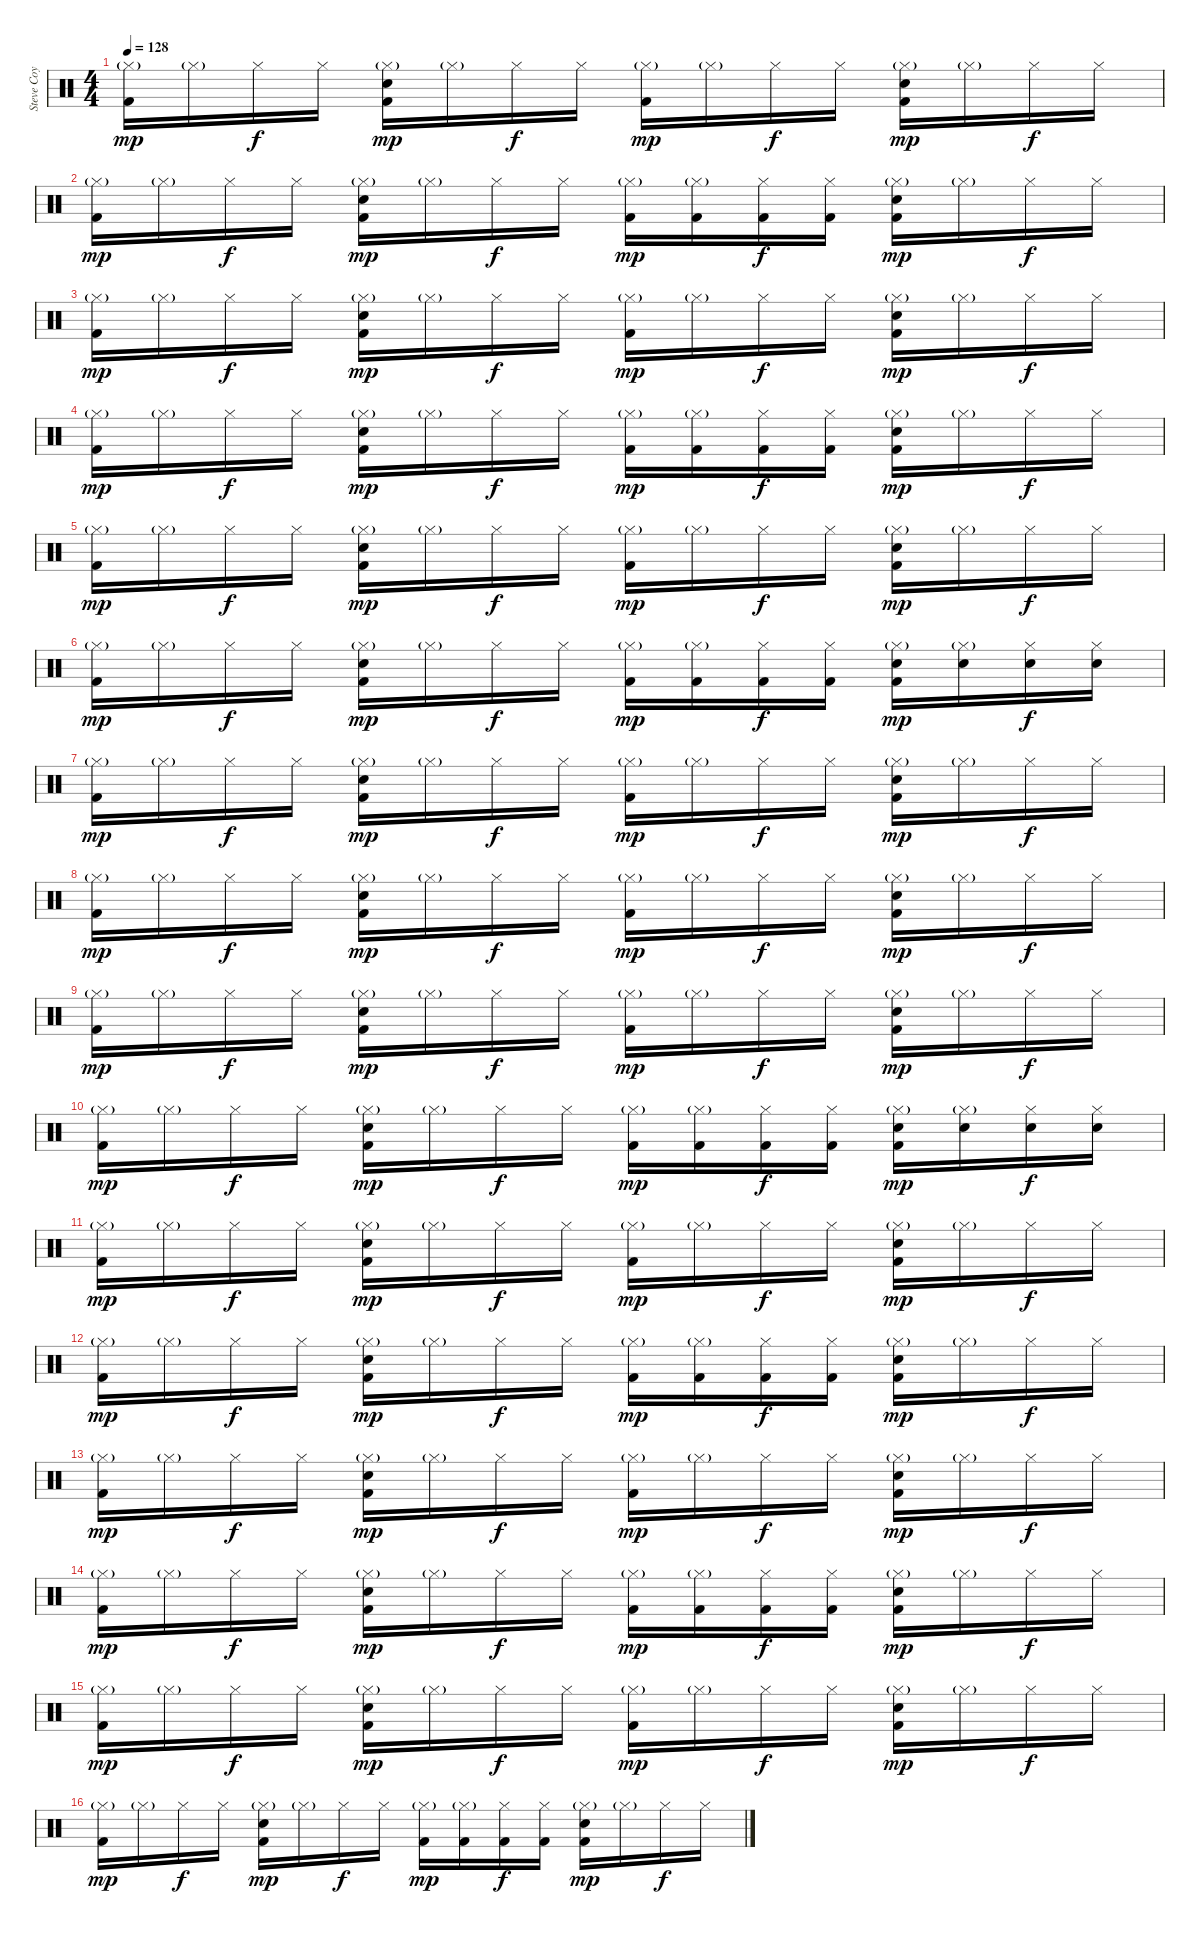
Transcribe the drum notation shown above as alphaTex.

\track ("Steve Coy" "Steve Coy") {instrument percussion}
\staff {score}
\articulation defaults
\ts (4 4)
\tempo 128
\clef neutral
\ks c
("Hi-Hat (closed)"{g} "Kick (hit) 2").16{dy mp} "Hi-Hat (closed)"{g}.16 "Hi-Hat (closed)".16{dy f} "Hi-Hat (closed)".16 ("Hi-Hat (closed)"{g} "Snare (hit) 2" "Kick (hit) 2").16{dy mp} "Hi-Hat (closed)"{g}.16 "Hi-Hat (closed)".16{dy f} "Hi-Hat (closed)".16 ("Hi-Hat (closed)"{g} "Kick (hit) 2").16{dy mp} "Hi-Hat (closed)"{g}.16 "Hi-Hat (closed)".16{dy f} "Hi-Hat (closed)".16 ("Hi-Hat (closed)"{g} "Snare (hit) 2" "Kick (hit) 2").16{dy mp} "Hi-Hat (closed)"{g}.16 "Hi-Hat (closed)".16{dy f} "Hi-Hat (closed)".16 |
("Hi-Hat (closed)"{g} "Kick (hit) 2").16{dy mp} "Hi-Hat (closed)"{g}.16 "Hi-Hat (closed)".16{dy f} "Hi-Hat (closed)".16 ("Hi-Hat (closed)"{g} "Snare (hit) 2" "Kick (hit) 2").16{dy mp} "Hi-Hat (closed)"{g}.16 "Hi-Hat (closed)".16{dy f} "Hi-Hat (closed)".16 ("Hi-Hat (closed)"{g} "Kick (hit) 2").16{dy mp} ("Hi-Hat (closed)"{g} "Kick (hit) 2").16 ("Hi-Hat (closed)" "Kick (hit) 2").16{dy f} ("Hi-Hat (closed)" "Kick (hit) 2").16 ("Hi-Hat (closed)"{g} "Snare (hit) 2" "Kick (hit) 2").16{dy mp} "Hi-Hat (closed)"{g}.16 "Hi-Hat (closed)".16{dy f} "Hi-Hat (closed)".16 |
("Hi-Hat (closed)"{g} "Kick (hit) 2").16{dy mp} "Hi-Hat (closed)"{g}.16 "Hi-Hat (closed)".16{dy f} "Hi-Hat (closed)".16 ("Hi-Hat (closed)"{g} "Snare (hit) 2" "Kick (hit) 2").16{dy mp} "Hi-Hat (closed)"{g}.16 "Hi-Hat (closed)".16{dy f} "Hi-Hat (closed)".16 ("Hi-Hat (closed)"{g} "Kick (hit) 2").16{dy mp} "Hi-Hat (closed)"{g}.16 "Hi-Hat (closed)".16{dy f} "Hi-Hat (closed)".16 ("Hi-Hat (closed)"{g} "Snare (hit) 2" "Kick (hit) 2").16{dy mp} "Hi-Hat (closed)"{g}.16 "Hi-Hat (closed)".16{dy f} "Hi-Hat (closed)".16 |
("Hi-Hat (closed)"{g} "Kick (hit) 2").16{dy mp} "Hi-Hat (closed)"{g}.16 "Hi-Hat (closed)".16{dy f} "Hi-Hat (closed)".16 ("Hi-Hat (closed)"{g} "Snare (hit) 2" "Kick (hit) 2").16{dy mp} "Hi-Hat (closed)"{g}.16 "Hi-Hat (closed)".16{dy f} "Hi-Hat (closed)".16 ("Hi-Hat (closed)"{g} "Kick (hit) 2").16{dy mp} ("Hi-Hat (closed)"{g} "Kick (hit) 2").16 ("Hi-Hat (closed)" "Kick (hit) 2").16{dy f} ("Hi-Hat (closed)" "Kick (hit) 2").16 ("Hi-Hat (closed)"{g} "Snare (hit) 2" "Kick (hit) 2").16{dy mp} "Hi-Hat (closed)"{g}.16 "Hi-Hat (closed)".16{dy f} "Hi-Hat (closed)".16 |
("Hi-Hat (closed)"{g} "Kick (hit) 2").16{dy mp} "Hi-Hat (closed)"{g}.16 "Hi-Hat (closed)".16{dy f} "Hi-Hat (closed)".16 ("Hi-Hat (closed)"{g} "Snare (hit) 2" "Kick (hit) 2").16{dy mp} "Hi-Hat (closed)"{g}.16 "Hi-Hat (closed)".16{dy f} "Hi-Hat (closed)".16 ("Hi-Hat (closed)"{g} "Kick (hit) 2").16{dy mp} "Hi-Hat (closed)"{g}.16 "Hi-Hat (closed)".16{dy f} "Hi-Hat (closed)".16 ("Hi-Hat (closed)"{g} "Snare (hit) 2" "Kick (hit) 2").16{dy mp} "Hi-Hat (closed)"{g}.16 "Hi-Hat (closed)".16{dy f} "Hi-Hat (closed)".16 |
("Hi-Hat (closed)"{g} "Kick (hit) 2").16{dy mp} "Hi-Hat (closed)"{g}.16 "Hi-Hat (closed)".16{dy f} "Hi-Hat (closed)".16 ("Hi-Hat (closed)"{g} "Snare (hit) 2" "Kick (hit) 2").16{dy mp} "Hi-Hat (closed)"{g}.16 "Hi-Hat (closed)".16{dy f} "Hi-Hat (closed)".16 ("Hi-Hat (closed)"{g} "Kick (hit) 2").16{dy mp} ("Hi-Hat (closed)"{g} "Kick (hit) 2").16 ("Hi-Hat (closed)" "Kick (hit) 2").16{dy f} ("Hi-Hat (closed)" "Kick (hit) 2").16 ("Hi-Hat (closed)"{g} "Snare (hit) 2" "Kick (hit) 2").16{dy mp} ("Hi-Hat (closed)"{g} "Snare (hit) 2").16 ("Hi-Hat (closed)" "Snare (hit) 2").16{dy f} ("Hi-Hat (closed)" "Snare (hit) 2").16 |
("Hi-Hat (closed)"{g} "Kick (hit) 2").16{dy mp} "Hi-Hat (closed)"{g}.16 "Hi-Hat (closed)".16{dy f} "Hi-Hat (closed)".16 ("Hi-Hat (closed)"{g} "Snare (hit) 2" "Kick (hit) 2").16{dy mp} "Hi-Hat (closed)"{g}.16 "Hi-Hat (closed)".16{dy f} "Hi-Hat (closed)".16 ("Hi-Hat (closed)"{g} "Kick (hit) 2").16{dy mp} "Hi-Hat (closed)"{g}.16 "Hi-Hat (closed)".16{dy f} "Hi-Hat (closed)".16 ("Hi-Hat (closed)"{g} "Snare (hit) 2" "Kick (hit) 2").16{dy mp} "Hi-Hat (closed)"{g}.16 "Hi-Hat (closed)".16{dy f} "Hi-Hat (closed)".16 |
("Hi-Hat (closed)"{g} "Kick (hit) 2").16{dy mp} "Hi-Hat (closed)"{g}.16 "Hi-Hat (closed)".16{dy f} "Hi-Hat (closed)".16 ("Hi-Hat (closed)"{g} "Snare (hit) 2" "Kick (hit) 2").16{dy mp} "Hi-Hat (closed)"{g}.16 "Hi-Hat (closed)".16{dy f} "Hi-Hat (closed)".16 ("Hi-Hat (closed)"{g} "Kick (hit) 2").16{dy mp} "Hi-Hat (closed)"{g}.16 "Hi-Hat (closed)".16{dy f} "Hi-Hat (closed)".16 ("Hi-Hat (closed)"{g} "Snare (hit) 2" "Kick (hit) 2").16{dy mp} "Hi-Hat (closed)"{g}.16 "Hi-Hat (closed)".16{dy f} "Hi-Hat (closed)".16 |
("Hi-Hat (closed)"{g} "Kick (hit) 2").16{dy mp} "Hi-Hat (closed)"{g}.16 "Hi-Hat (closed)".16{dy f} "Hi-Hat (closed)".16 ("Hi-Hat (closed)"{g} "Snare (hit) 2" "Kick (hit) 2").16{dy mp} "Hi-Hat (closed)"{g}.16 "Hi-Hat (closed)".16{dy f} "Hi-Hat (closed)".16 ("Hi-Hat (closed)"{g} "Kick (hit) 2").16{dy mp} "Hi-Hat (closed)"{g}.16 "Hi-Hat (closed)".16{dy f} "Hi-Hat (closed)".16 ("Hi-Hat (closed)"{g} "Snare (hit) 2" "Kick (hit) 2").16{dy mp} "Hi-Hat (closed)"{g}.16 "Hi-Hat (closed)".16{dy f} "Hi-Hat (closed)".16 |
("Hi-Hat (closed)"{g} "Kick (hit) 2").16{dy mp} "Hi-Hat (closed)"{g}.16 "Hi-Hat (closed)".16{dy f} "Hi-Hat (closed)".16 ("Hi-Hat (closed)"{g} "Snare (hit) 2" "Kick (hit) 2").16{dy mp} "Hi-Hat (closed)"{g}.16 "Hi-Hat (closed)".16{dy f} "Hi-Hat (closed)".16 ("Hi-Hat (closed)"{g} "Kick (hit) 2").16{dy mp} ("Hi-Hat (closed)"{g} "Kick (hit) 2").16 ("Hi-Hat (closed)" "Kick (hit) 2").16{dy f} ("Hi-Hat (closed)" "Kick (hit) 2").16 ("Hi-Hat (closed)"{g} "Snare (hit) 2" "Kick (hit) 2").16{dy mp} ("Hi-Hat (closed)"{g} "Snare (hit) 2").16 ("Hi-Hat (closed)" "Snare (hit) 2").16{dy f} ("Hi-Hat (closed)" "Snare (hit) 2").16 |
("Hi-Hat (closed)"{g} "Kick (hit) 2").16{dy mp} "Hi-Hat (closed)"{g}.16 "Hi-Hat (closed)".16{dy f} "Hi-Hat (closed)".16 ("Hi-Hat (closed)"{g} "Snare (hit) 2" "Kick (hit) 2").16{dy mp} "Hi-Hat (closed)"{g}.16 "Hi-Hat (closed)".16{dy f} "Hi-Hat (closed)".16 ("Hi-Hat (closed)"{g} "Kick (hit) 2").16{dy mp} "Hi-Hat (closed)"{g}.16 "Hi-Hat (closed)".16{dy f} "Hi-Hat (closed)".16 ("Hi-Hat (closed)"{g} "Snare (hit) 2" "Kick (hit) 2").16{dy mp} "Hi-Hat (closed)"{g}.16 "Hi-Hat (closed)".16{dy f} "Hi-Hat (closed)".16 |
("Hi-Hat (closed)"{g} "Kick (hit) 2").16{dy mp} "Hi-Hat (closed)"{g}.16 "Hi-Hat (closed)".16{dy f} "Hi-Hat (closed)".16 ("Hi-Hat (closed)"{g} "Snare (hit) 2" "Kick (hit) 2").16{dy mp} "Hi-Hat (closed)"{g}.16 "Hi-Hat (closed)".16{dy f} "Hi-Hat (closed)".16 ("Hi-Hat (closed)"{g} "Kick (hit) 2").16{dy mp} ("Hi-Hat (closed)"{g} "Kick (hit) 2").16 ("Hi-Hat (closed)" "Kick (hit) 2").16{dy f} ("Hi-Hat (closed)" "Kick (hit) 2").16 ("Hi-Hat (closed)"{g} "Snare (hit) 2" "Kick (hit) 2").16{dy mp} "Hi-Hat (closed)"{g}.16 "Hi-Hat (closed)".16{dy f} "Hi-Hat (closed)".16 |
("Hi-Hat (closed)"{g} "Kick (hit) 2").16{dy mp} "Hi-Hat (closed)"{g}.16 "Hi-Hat (closed)".16{dy f} "Hi-Hat (closed)".16 ("Hi-Hat (closed)"{g} "Snare (hit) 2" "Kick (hit) 2").16{dy mp} "Hi-Hat (closed)"{g}.16 "Hi-Hat (closed)".16{dy f} "Hi-Hat (closed)".16 ("Hi-Hat (closed)"{g} "Kick (hit) 2").16{dy mp} "Hi-Hat (closed)"{g}.16 "Hi-Hat (closed)".16{dy f} "Hi-Hat (closed)".16 ("Hi-Hat (closed)"{g} "Snare (hit) 2" "Kick (hit) 2").16{dy mp} "Hi-Hat (closed)"{g}.16 "Hi-Hat (closed)".16{dy f} "Hi-Hat (closed)".16 |
("Hi-Hat (closed)"{g} "Kick (hit) 2").16{dy mp} "Hi-Hat (closed)"{g}.16 "Hi-Hat (closed)".16{dy f} "Hi-Hat (closed)".16 ("Hi-Hat (closed)"{g} "Snare (hit) 2" "Kick (hit) 2").16{dy mp} "Hi-Hat (closed)"{g}.16 "Hi-Hat (closed)".16{dy f} "Hi-Hat (closed)".16 ("Hi-Hat (closed)"{g} "Kick (hit) 2").16{dy mp} ("Hi-Hat (closed)"{g} "Kick (hit) 2").16 ("Hi-Hat (closed)" "Kick (hit) 2").16{dy f} ("Hi-Hat (closed)" "Kick (hit) 2").16 ("Hi-Hat (closed)"{g} "Snare (hit) 2" "Kick (hit) 2").16{dy mp} "Hi-Hat (closed)"{g}.16 "Hi-Hat (closed)".16{dy f} "Hi-Hat (closed)".16 |
("Hi-Hat (closed)"{g} "Kick (hit) 2").16{dy mp} "Hi-Hat (closed)"{g}.16 "Hi-Hat (closed)".16{dy f} "Hi-Hat (closed)".16 ("Hi-Hat (closed)"{g} "Snare (hit) 2" "Kick (hit) 2").16{dy mp} "Hi-Hat (closed)"{g}.16 "Hi-Hat (closed)".16{dy f} "Hi-Hat (closed)".16 ("Hi-Hat (closed)"{g} "Kick (hit) 2").16{dy mp} "Hi-Hat (closed)"{g}.16 "Hi-Hat (closed)".16{dy f} "Hi-Hat (closed)".16 ("Hi-Hat (closed)"{g} "Snare (hit) 2" "Kick (hit) 2").16{dy mp} "Hi-Hat (closed)"{g}.16 "Hi-Hat (closed)".16{dy f} "Hi-Hat (closed)".16 |
("Hi-Hat (closed)"{g} "Kick (hit) 2").16{dy mp} "Hi-Hat (closed)"{g}.16 "Hi-Hat (closed)".16{dy f} "Hi-Hat (closed)".16 ("Hi-Hat (closed)"{g} "Snare (hit) 2" "Kick (hit) 2").16{dy mp} "Hi-Hat (closed)"{g}.16 "Hi-Hat (closed)".16{dy f} "Hi-Hat (closed)".16 ("Hi-Hat (closed)"{g} "Kick (hit) 2").16{dy mp} ("Hi-Hat (closed)"{g} "Kick (hit) 2").16 ("Hi-Hat (closed)" "Kick (hit) 2").16{dy f} ("Hi-Hat (closed)" "Kick (hit) 2").16 ("Hi-Hat (closed)"{g} "Snare (hit) 2" "Kick (hit) 2").16{dy mp} "Hi-Hat (closed)"{g}.16 "Hi-Hat (closed)".16{dy f} "Hi-Hat (closed)".16
